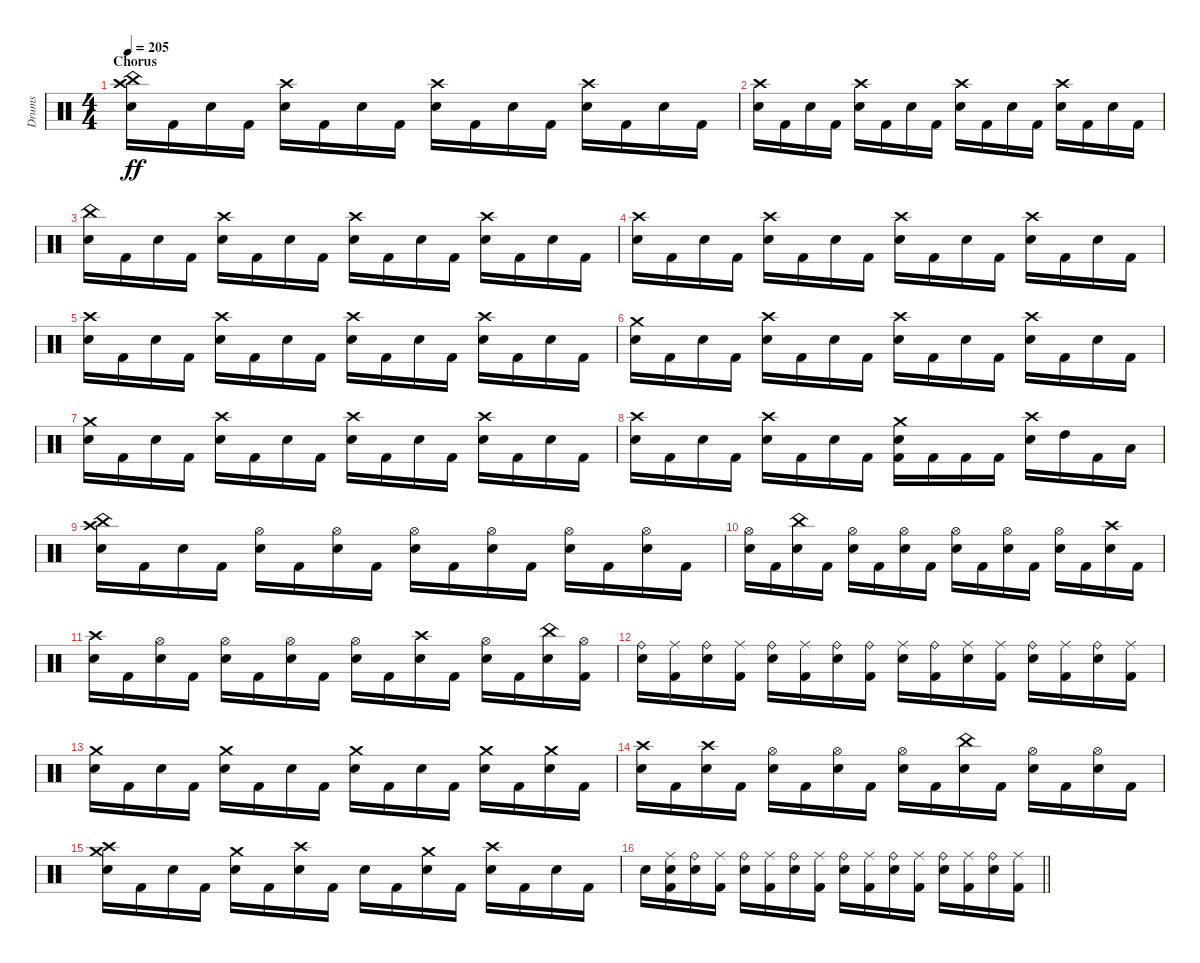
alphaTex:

\track ("Drums" "Drums") {instrument percussion}
\staff {score}
\articulation defaults
\ts (4 4)
\section ("" "Chorus")
\tempo 205
\clef neutral
\ks c
("China (hit)" "Crash high (hit)" "Snare (hit) 2").16{dy ff} "Kick (hit) 2".16 "Snare (hit) 2".16 "Kick (hit) 2".16 ("Crash high (hit)" "Snare (hit) 2").16 "Kick (hit) 2".16 "Snare (hit) 2".16 "Kick (hit) 2".16 ("Crash high (hit)" "Snare (hit) 2").16 "Kick (hit) 2".16 "Snare (hit) 2".16 "Kick (hit) 2".16 ("Crash high (hit)" "Snare (hit) 2").16 "Kick (hit) 2".16 "Snare (hit) 2".16 "Kick (hit) 2".16 |
("Crash high (hit)" "Snare (hit) 2").16 "Kick (hit) 2".16 "Snare (hit) 2".16 "Kick (hit) 2".16 ("Crash high (hit)" "Snare (hit) 2").16 "Kick (hit) 2".16 "Snare (hit) 2".16 "Kick (hit) 2".16 ("Crash high (hit)" "Snare (hit) 2").16 "Kick (hit) 2".16 "Snare (hit) 2".16 "Kick (hit) 2".16 ("Crash high (hit)" "Snare (hit) 2").16 "Kick (hit) 2".16 "Snare (hit) 2".16 "Kick (hit) 2".16 |
("China (hit)" "Snare (hit) 2").16 "Kick (hit) 2".16 "Snare (hit) 2".16 "Kick (hit) 2".16 ("Crash high (hit)" "Snare (hit) 2").16 "Kick (hit) 2".16 "Snare (hit) 2".16 "Kick (hit) 2".16 ("Crash high (hit)" "Snare (hit) 2").16 "Kick (hit) 2".16 "Snare (hit) 2".16 "Kick (hit) 2".16 ("Crash high (hit)" "Snare (hit) 2").16 "Kick (hit) 2".16 "Snare (hit) 2".16 "Kick (hit) 2".16 |
("Crash high (hit)" "Snare (hit) 2").16 "Kick (hit) 2".16 "Snare (hit) 2".16 "Kick (hit) 2".16 ("Crash high (hit)" "Snare (hit) 2").16 "Kick (hit) 2".16 "Snare (hit) 2".16 "Kick (hit) 2".16 ("Crash high (hit)" "Snare (hit) 2").16 "Kick (hit) 2".16 "Snare (hit) 2".16 "Kick (hit) 2".16 ("Crash high (hit)" "Snare (hit) 2").16 "Kick (hit) 2".16 "Snare (hit) 2".16 "Kick (hit) 2".16 |
("Crash high (hit)" "Snare (hit) 2").16 "Kick (hit) 2".16 "Snare (hit) 2".16 "Kick (hit) 2".16 ("Crash high (hit)" "Snare (hit) 2").16 "Kick (hit) 2".16 "Snare (hit) 2".16 "Kick (hit) 2".16 ("Crash high (hit)" "Snare (hit) 2").16 "Kick (hit) 2".16 "Snare (hit) 2".16 "Kick (hit) 2".16 ("Crash high (hit)" "Snare (hit) 2").16 "Kick (hit) 2".16 "Snare (hit) 2".16 "Kick (hit) 2".16 |
("Crash medium (hit)" "Snare (hit) 2").16 "Kick (hit) 2".16 "Snare (hit) 2".16 "Kick (hit) 2".16 ("Crash high (hit)" "Snare (hit) 2").16 "Kick (hit) 2".16 "Snare (hit) 2".16 "Kick (hit) 2".16 ("Crash high (hit)" "Snare (hit) 2").16 "Kick (hit) 2".16 "Snare (hit) 2".16 "Kick (hit) 2".16 ("Crash high (hit)" "Snare (hit) 2").16 "Kick (hit) 2".16 "Snare (hit) 2".16 "Kick (hit) 2".16 |
("Crash medium (hit)" "Snare (hit) 2").16 "Kick (hit) 2".16 "Snare (hit) 2".16 "Kick (hit) 2".16 ("Crash high (hit)" "Snare (hit) 2").16 "Kick (hit) 2".16 "Snare (hit) 2".16 "Kick (hit) 2".16 ("Crash high (hit)" "Snare (hit) 2").16 "Kick (hit) 2".16 "Snare (hit) 2".16 "Kick (hit) 2".16 ("Crash high (hit)" "Snare (hit) 2").16 "Kick (hit) 2".16 "Snare (hit) 2".16 "Kick (hit) 2".16 |
("Crash high (hit)" "Snare (hit) 2").16 "Kick (hit) 2".16 "Snare (hit) 2".16 "Kick (hit) 2".16 ("Crash high (hit)" "Snare (hit) 2").16 "Kick (hit) 2".16 "Snare (hit) 2".16 "Kick (hit) 2".16 ("Crash medium (hit)" "Kick (hit) 2" "Snare (hit) 2").16 "Kick (hit) 2".16 "Kick (hit) 2".16 "Kick (hit) 2".16 ("Crash high (hit)" "Snare (hit) 2").16 "High Tom (hit)".16 "Kick (hit) 2".16 "Low Tom (hit)".16 |
("China (hit)" "Crash high (hit)" "Snare (hit) 2").16 "Kick (hit) 2".16 "Snare (hit) 2".16 "Kick (hit) 2".16 ("Hi-Hat (open)" "Snare (hit) 2").16 "Kick (hit) 2".16 ("Hi-Hat (open)" "Snare (hit) 2").16 "Kick (hit) 2".16 ("Hi-Hat (open)" "Snare (hit) 2").16 "Kick (hit) 2".16 ("Hi-Hat (open)" "Snare (hit) 2").16 "Kick (hit) 2".16 ("Hi-Hat (open)" "Snare (hit) 2").16 "Kick (hit) 2".16 ("Hi-Hat (open)" "Snare (hit) 2").16 "Kick (hit) 2".16 |
("Hi-Hat (open)" "Snare (hit) 2").16 "Kick (hit) 2".16 ("China (hit)" "Snare (hit) 2").16 "Kick (hit) 2".16 ("Hi-Hat (open)" "Snare (hit) 2").16 "Kick (hit) 2".16 ("Hi-Hat (open)" "Snare (hit) 2").16 "Kick (hit) 2".16 ("Hi-Hat (open)" "Snare (hit) 2").16 "Kick (hit) 2".16 ("Hi-Hat (open)" "Snare (hit) 2").16 "Kick (hit) 2".16 ("Hi-Hat (open)" "Snare (hit) 2").16 "Kick (hit) 2".16 ("Crash high (hit)" "Snare (hit) 2").16 "Kick (hit) 2".16 |
("Crash high (hit)" "Snare (hit) 2").16 "Kick (hit) 2".16 ("Hi-Hat (open)" "Snare (hit) 2").16 "Kick (hit) 2".16 ("Hi-Hat (open)" "Snare (hit) 2").16 "Kick (hit) 2".16 ("Hi-Hat (open)" "Snare (hit) 2").16 "Kick (hit) 2".16 ("Hi-Hat (open)" "Snare (hit) 2").16 "Kick (hit) 2".16 ("Crash high (hit)" "Snare (hit) 2").16 "Kick (hit) 2".16 ("Hi-Hat (open)" "Snare (hit) 2").16 "Kick (hit) 2".16 ("China (hit)" "Snare (hit) 2").16 ("Hi-Hat (open)" "Kick (hit) 2").16 |
("Snare (hit) 2" "Ride (bell)").16 ("Kick (hit) 2" "Ride (middle)").16 ("Snare (hit) 2" "Ride (bell)").16 ("Kick (hit) 2" "Ride (middle)").16 ("Snare (hit) 2" "Ride (bell)").16 ("Kick (hit) 2" "Ride (middle)").16 ("Snare (hit) 2" "Ride (bell)").16 ("Kick (hit) 2" "Ride (bell)").16 ("Snare (hit) 2" "Ride (middle)").16 ("Kick (hit) 2" "Ride (bell)").16 ("Snare (hit) 2" "Ride (middle)").16 ("Kick (hit) 2" "Ride (middle)").16 ("Snare (hit) 2" "Ride (bell)").16 ("Kick (hit) 2" "Ride (middle)").16 ("Snare (hit) 2" "Ride (bell)").16 ("Kick (hit) 2" "Ride (middle)").16 |
("Crash medium (hit)" "Snare (hit) 2").16 "Kick (hit) 2".16 "Snare (hit) 2".16 "Kick (hit) 2".16 ("Crash medium (hit)" "Snare (hit) 2").16 "Kick (hit) 2".16 "Snare (hit) 2".16 "Kick (hit) 2".16 ("Crash medium (hit)" "Snare (hit) 2").16 "Kick (hit) 2".16 "Snare (hit) 2".16 "Kick (hit) 2".16 ("Crash medium (hit)" "Snare (hit) 2").16 "Kick (hit) 2".16 ("Crash medium (hit)" "Snare (hit) 2").16 "Kick (hit) 2".16 |
("Crash high (hit)" "Snare (hit) 2").16 "Kick (hit) 2".16 ("Crash high (hit)" "Snare (hit) 2").16 "Kick (hit) 2".16 ("Hi-Hat (open)" "Snare (hit) 2").16 "Kick (hit) 2".16 ("Hi-Hat (open)" "Snare (hit) 2").16 "Kick (hit) 2".16 ("Hi-Hat (open)" "Snare (hit) 2").16 "Kick (hit) 2".16 ("China (hit)" "Snare (hit) 2").16 "Kick (hit) 2".16 ("Hi-Hat (open)" "Snare (hit) 2").16 "Kick (hit) 2".16 ("Hi-Hat (open)" "Snare (hit) 2").16 "Kick (hit) 2".16 |
("Crash high (hit)" "Crash medium (hit)" "Snare (hit) 2").16 "Kick (hit) 2".16 "Snare (hit) 2".16 "Kick (hit) 2".16 ("Crash medium (hit)" "Snare (hit) 2").16 "Kick (hit) 2".16 ("Crash high (hit)" "Snare (hit) 2").16 "Kick (hit) 2".16 "Snare (hit) 2".16 "Kick (hit) 2".16 ("Crash medium (hit)" "Snare (hit) 2").16 "Kick (hit) 2".16 ("Crash high (hit)" "Snare (hit) 2").16 "Kick (hit) 2".16 "Snare (hit) 2".16 "Kick (hit) 2".16 |
\barLineRight lightlight "Snare (hit) 2".16
("Kick (hit) 2" "Snare (hit) 2" "Ride (middle)").16 ("Snare (hit) 2" "Ride (bell)").16 ("Kick (hit) 2" "Ride (middle)").16 ("Snare (hit) 2" "Ride (bell)").16 ("Kick (hit) 2" "Ride (middle)").16 ("Snare (hit) 2" "Ride (bell)").16 ("Kick (hit) 2" "Ride (middle)").16 ("Snare (hit) 2" "Ride (bell)").16 ("Kick (hit) 2" "Ride (middle)").16 ("Snare (hit) 2" "Ride (bell)").16 ("Kick (hit) 2" "Ride (middle)").16 ("Snare (hit) 2" "Ride (bell)").16 ("Kick (hit) 2" "Ride (middle)").16 ("Snare (hit) 2" "Ride (bell)").16 ("Kick (hit) 2" "Ride (middle)").16
